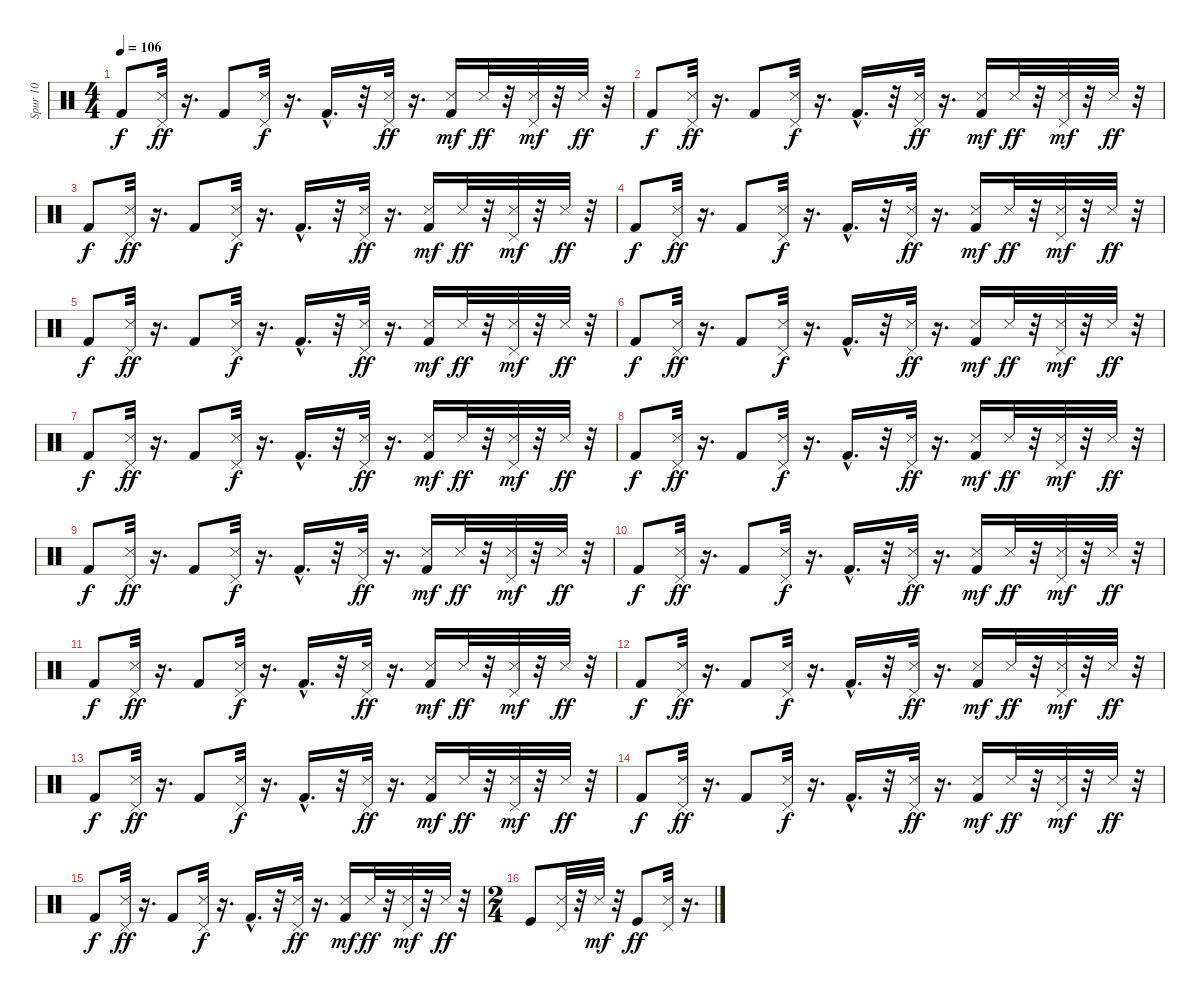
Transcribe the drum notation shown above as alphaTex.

\track ("Spur 10" "Spur 10") {instrument percussion}
\staff {score}
\articulation defaults
\ts (4 4)
\tempo 106
\clef neutral
\ks c "Kick (hit) 2".8{dy f}
("Pedal Hi-Hat (hit)" "Snare (side stick) 3").32{dy ff} r.16{d} "Kick (hit) 2".8 ("Pedal Hi-Hat (hit)" "Snare (side stick) 3").32{dy f} r.16{d} "Kick (hit) 2"{hac}.16{d} r.32 ("Pedal Hi-Hat (hit)" "Snare (side stick) 3").32{dy ff} r.16{d} ("Kick (hit) 2" "Snare (side stick) 3").16{dy mf} "Snare (side stick) 3".32{dy ff} r.32 ("Pedal Hi-Hat (hit)" "Snare (side stick) 3").32{dy mf} r.32 "Snare (side stick) 3".32{dy ff} r.32 |
"Kick (hit) 2".8{dy f} ("Pedal Hi-Hat (hit)" "Snare (side stick) 3").32{dy ff} r.16{d} "Kick (hit) 2".8 ("Pedal Hi-Hat (hit)" "Snare (side stick) 3").32{dy f} r.16{d} "Kick (hit) 2"{hac}.16{d} r.32 ("Pedal Hi-Hat (hit)" "Snare (side stick) 3").32{dy ff} r.16{d} ("Kick (hit) 2" "Snare (side stick) 3").16{dy mf} "Snare (side stick) 3".32{dy ff} r.32 ("Pedal Hi-Hat (hit)" "Snare (side stick) 3").32{dy mf} r.32 "Snare (side stick) 3".32{dy ff} r.32 |
"Kick (hit) 2".8{dy f} ("Pedal Hi-Hat (hit)" "Snare (side stick) 3").32{dy ff} r.16{d} "Kick (hit) 2".8 ("Pedal Hi-Hat (hit)" "Snare (side stick) 3").32{dy f} r.16{d} "Kick (hit) 2"{hac}.16{d} r.32 ("Pedal Hi-Hat (hit)" "Snare (side stick) 3").32{dy ff} r.16{d} ("Kick (hit) 2" "Snare (side stick) 3").16{dy mf} "Snare (side stick) 3".32{dy ff} r.32 ("Pedal Hi-Hat (hit)" "Snare (side stick) 3").32{dy mf} r.32 "Snare (side stick) 3".32{dy ff} r.32 |
"Kick (hit) 2".8{dy f} ("Pedal Hi-Hat (hit)" "Snare (side stick) 3").32{dy ff} r.16{d} "Kick (hit) 2".8 ("Pedal Hi-Hat (hit)" "Snare (side stick) 3").32{dy f} r.16{d} "Kick (hit) 2"{hac}.16{d} r.32 ("Pedal Hi-Hat (hit)" "Snare (side stick) 3").32{dy ff} r.16{d} ("Kick (hit) 2" "Snare (side stick) 3").16{dy mf} "Snare (side stick) 3".32{dy ff} r.32 ("Pedal Hi-Hat (hit)" "Snare (side stick) 3").32{dy mf} r.32 "Snare (side stick) 3".32{dy ff} r.32 |
"Kick (hit) 2".8{dy f} ("Pedal Hi-Hat (hit)" "Snare (side stick) 3").32{dy ff} r.16{d} "Kick (hit) 2".8 ("Pedal Hi-Hat (hit)" "Snare (side stick) 3").32{dy f} r.16{d} "Kick (hit) 2"{hac}.16{d} r.32 ("Pedal Hi-Hat (hit)" "Snare (side stick) 3").32{dy ff} r.16{d} ("Kick (hit) 2" "Snare (side stick) 3").16{dy mf} "Snare (side stick) 3".32{dy ff} r.32 ("Pedal Hi-Hat (hit)" "Snare (side stick) 3").32{dy mf} r.32 "Snare (side stick) 3".32{dy ff} r.32 |
"Kick (hit) 2".8{dy f} ("Pedal Hi-Hat (hit)" "Snare (side stick) 3").32{dy ff} r.16{d} "Kick (hit) 2".8 ("Pedal Hi-Hat (hit)" "Snare (side stick) 3").32{dy f} r.16{d} "Kick (hit) 2"{hac}.16{d} r.32 ("Pedal Hi-Hat (hit)" "Snare (side stick) 3").32{dy ff} r.16{d} ("Kick (hit) 2" "Snare (side stick) 3").16{dy mf} "Snare (side stick) 3".32{dy ff} r.32 ("Pedal Hi-Hat (hit)" "Snare (side stick) 3").32{dy mf} r.32 "Snare (side stick) 3".32{dy ff} r.32 |
"Kick (hit) 2".8{dy f} ("Pedal Hi-Hat (hit)" "Snare (side stick) 3").32{dy ff} r.16{d} "Kick (hit) 2".8 ("Pedal Hi-Hat (hit)" "Snare (side stick) 3").32{dy f} r.16{d} "Kick (hit) 2"{hac}.16{d} r.32 ("Pedal Hi-Hat (hit)" "Snare (side stick) 3").32{dy ff} r.16{d} ("Kick (hit) 2" "Snare (side stick) 3").16{dy mf} "Snare (side stick) 3".32{dy ff} r.32 ("Pedal Hi-Hat (hit)" "Snare (side stick) 3").32{dy mf} r.32 "Snare (side stick) 3".32{dy ff} r.32 |
"Kick (hit) 2".8{dy f} ("Pedal Hi-Hat (hit)" "Snare (side stick) 3").32{dy ff} r.16{d} "Kick (hit) 2".8 ("Pedal Hi-Hat (hit)" "Snare (side stick) 3").32{dy f} r.16{d} "Kick (hit) 2"{hac}.16{d} r.32 ("Pedal Hi-Hat (hit)" "Snare (side stick) 3").32{dy ff} r.16{d} ("Kick (hit) 2" "Snare (side stick) 3").16{dy mf} "Snare (side stick) 3".32{dy ff} r.32 ("Pedal Hi-Hat (hit)" "Snare (side stick) 3").32{dy mf} r.32 "Snare (side stick) 3".32{dy ff} r.32 |
"Kick (hit) 2".8{dy f} ("Pedal Hi-Hat (hit)" "Snare (side stick) 3").32{dy ff} r.16{d} "Kick (hit) 2".8 ("Pedal Hi-Hat (hit)" "Snare (side stick) 3").32{dy f} r.16{d} "Kick (hit) 2"{hac}.16{d} r.32 ("Pedal Hi-Hat (hit)" "Snare (side stick) 3").32{dy ff} r.16{d} ("Kick (hit) 2" "Snare (side stick) 3").16{dy mf} "Snare (side stick) 3".32{dy ff} r.32 ("Pedal Hi-Hat (hit)" "Snare (side stick) 3").32{dy mf} r.32 "Snare (side stick) 3".32{dy ff} r.32 |
"Kick (hit) 2".8{dy f} ("Pedal Hi-Hat (hit)" "Snare (side stick) 3").32{dy ff} r.16{d} "Kick (hit) 2".8 ("Pedal Hi-Hat (hit)" "Snare (side stick) 3").32{dy f} r.16{d} "Kick (hit) 2"{hac}.16{d} r.32 ("Pedal Hi-Hat (hit)" "Snare (side stick) 3").32{dy ff} r.16{d} ("Kick (hit) 2" "Snare (side stick) 3").16{dy mf} "Snare (side stick) 3".32{dy ff} r.32 ("Pedal Hi-Hat (hit)" "Snare (side stick) 3").32{dy mf} r.32 "Snare (side stick) 3".32{dy ff} r.32 |
"Kick (hit) 2".8{dy f} ("Pedal Hi-Hat (hit)" "Snare (side stick) 3").32{dy ff} r.16{d} "Kick (hit) 2".8 ("Pedal Hi-Hat (hit)" "Snare (side stick) 3").32{dy f} r.16{d} "Kick (hit) 2"{hac}.16{d} r.32 ("Pedal Hi-Hat (hit)" "Snare (side stick) 3").32{dy ff} r.16{d} ("Kick (hit) 2" "Snare (side stick) 3").16{dy mf} "Snare (side stick) 3".32{dy ff} r.32 ("Pedal Hi-Hat (hit)" "Snare (side stick) 3").32{dy mf} r.32 "Snare (side stick) 3".32{dy ff} r.32 |
"Kick (hit) 2".8{dy f} ("Pedal Hi-Hat (hit)" "Snare (side stick) 3").32{dy ff} r.16{d} "Kick (hit) 2".8 ("Pedal Hi-Hat (hit)" "Snare (side stick) 3").32{dy f} r.16{d} "Kick (hit) 2"{hac}.16{d} r.32 ("Pedal Hi-Hat (hit)" "Snare (side stick) 3").32{dy ff} r.16{d} ("Kick (hit) 2" "Snare (side stick) 3").16{dy mf} "Snare (side stick) 3".32{dy ff} r.32 ("Pedal Hi-Hat (hit)" "Snare (side stick) 3").32{dy mf} r.32 "Snare (side stick) 3".32{dy ff} r.32 |
"Kick (hit) 2".8{dy f} ("Pedal Hi-Hat (hit)" "Snare (side stick) 3").32{dy ff} r.16{d} "Kick (hit) 2".8 ("Pedal Hi-Hat (hit)" "Snare (side stick) 3").32{dy f} r.16{d} "Kick (hit) 2"{hac}.16{d} r.32 ("Pedal Hi-Hat (hit)" "Snare (side stick) 3").32{dy ff} r.16{d} ("Kick (hit) 2" "Snare (side stick) 3").16{dy mf} "Snare (side stick) 3".32{dy ff} r.32 ("Pedal Hi-Hat (hit)" "Snare (side stick) 3").32{dy mf} r.32 "Snare (side stick) 3".32{dy ff} r.32 |
"Kick (hit) 2".8{dy f} ("Pedal Hi-Hat (hit)" "Snare (side stick) 3").32{dy ff} r.16{d} "Kick (hit) 2".8 ("Pedal Hi-Hat (hit)" "Snare (side stick) 3").32{dy f} r.16{d} "Kick (hit) 2"{hac}.16{d} r.32 ("Pedal Hi-Hat (hit)" "Snare (side stick) 3").32{dy ff} r.16{d} ("Kick (hit) 2" "Snare (side stick) 3").16{dy mf} "Snare (side stick) 3".32{dy ff} r.32 ("Pedal Hi-Hat (hit)" "Snare (side stick) 3").32{dy mf} r.32 "Snare (side stick) 3".32{dy ff} r.32 |
"Kick (hit) 2".8{dy f} ("Pedal Hi-Hat (hit)" "Snare (side stick) 3").32{dy ff} r.16{d} "Kick (hit) 2".8 ("Pedal Hi-Hat (hit)" "Snare (side stick) 3").32{dy f} r.16{d} "Kick (hit) 2"{hac}.16{d} r.32 ("Pedal Hi-Hat (hit)" "Snare (side stick) 3").32{dy ff} r.16{d} ("Kick (hit) 2" "Snare (side stick) 3").16{dy mf} "Snare (side stick) 3".32{dy ff} r.32 ("Pedal Hi-Hat (hit)" "Snare (side stick) 3").32{dy mf} r.32 "Snare (side stick) 3".32{dy ff} r.32 |
\ts (2 4)
"Kick (hit)".8 ("Snare (side stick) 3" "Pedal Hi-Hat (hit)").32 r.32 "Snare (side stick) 3".32{dy mf} r.32 "Kick (hit)".8{dy ff} ("Snare (side stick) 3" "Pedal Hi-Hat (hit)").32 r.16{d}
